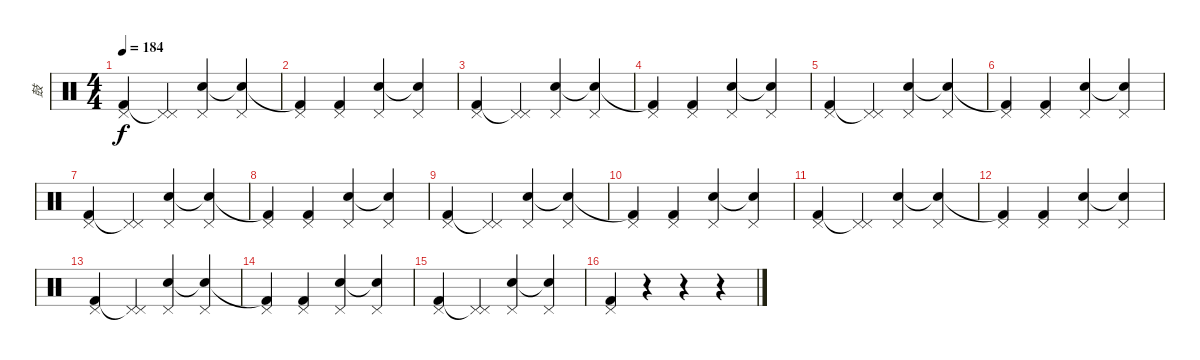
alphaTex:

\track ("鼓" "鼓") {instrument percussion}
\staff {score}
\articulation defaults
\ts (4 4)
\tempo 184
\clef neutral
\ks c
("Pedal Hi-Hat (hit)" "Kick (hit) 2").4{dy f} ("Pedal Hi-Hat (hit)" "Pedal Hi-Hat (hit)"{t}).4 ("Pedal Hi-Hat (hit)" "Electric Snare (hit)").4 ("Pedal Hi-Hat (hit)" "Snare (hit)"{t}).4 |
("Pedal Hi-Hat (hit)" "Kick (hit) 2"{t}).4 ("Pedal Hi-Hat (hit)" "Kick (hit) 2").4 ("Pedal Hi-Hat (hit)" "Electric Snare (hit)").4 ("Pedal Hi-Hat (hit)" "Snare (hit)"{t}).4 |
("Pedal Hi-Hat (hit)" "Kick (hit) 2").4 ("Pedal Hi-Hat (hit)" "Pedal Hi-Hat (hit)"{t}).4 ("Pedal Hi-Hat (hit)" "Electric Snare (hit)").4 ("Pedal Hi-Hat (hit)" "Snare (hit)"{t}).4 |
("Pedal Hi-Hat (hit)" "Kick (hit) 2"{t}).4 ("Pedal Hi-Hat (hit)" "Kick (hit) 2").4 ("Pedal Hi-Hat (hit)" "Electric Snare (hit)").4 ("Pedal Hi-Hat (hit)" "Snare (hit)"{t}).4 |
("Pedal Hi-Hat (hit)" "Kick (hit) 2").4 ("Pedal Hi-Hat (hit)" "Pedal Hi-Hat (hit)"{t}).4 ("Pedal Hi-Hat (hit)" "Electric Snare (hit)").4 ("Pedal Hi-Hat (hit)" "Snare (hit)"{t}).4 |
("Pedal Hi-Hat (hit)" "Kick (hit) 2"{t}).4 ("Pedal Hi-Hat (hit)" "Kick (hit) 2").4 ("Pedal Hi-Hat (hit)" "Electric Snare (hit)").4 ("Pedal Hi-Hat (hit)" "Snare (hit)"{t}).4 |
("Pedal Hi-Hat (hit)" "Kick (hit) 2").4 ("Pedal Hi-Hat (hit)" "Pedal Hi-Hat (hit)"{t}).4 ("Pedal Hi-Hat (hit)" "Electric Snare (hit)").4 ("Pedal Hi-Hat (hit)" "Snare (hit)"{t}).4 |
("Pedal Hi-Hat (hit)" "Kick (hit) 2"{t}).4 ("Pedal Hi-Hat (hit)" "Kick (hit) 2").4 ("Pedal Hi-Hat (hit)" "Electric Snare (hit)").4 ("Pedal Hi-Hat (hit)" "Snare (hit)"{t}).4 |
("Pedal Hi-Hat (hit)" "Kick (hit) 2").4 ("Pedal Hi-Hat (hit)" "Pedal Hi-Hat (hit)"{t}).4 ("Pedal Hi-Hat (hit)" "Electric Snare (hit)").4 ("Pedal Hi-Hat (hit)" "Snare (hit)"{t}).4 |
("Pedal Hi-Hat (hit)" "Kick (hit) 2"{t}).4 ("Pedal Hi-Hat (hit)" "Kick (hit) 2").4 ("Pedal Hi-Hat (hit)" "Electric Snare (hit)").4 ("Pedal Hi-Hat (hit)" "Snare (hit)"{t}).4 |
("Pedal Hi-Hat (hit)" "Kick (hit) 2").4 ("Pedal Hi-Hat (hit)" "Pedal Hi-Hat (hit)"{t}).4 ("Pedal Hi-Hat (hit)" "Electric Snare (hit)").4 ("Pedal Hi-Hat (hit)" "Snare (hit)"{t}).4 |
("Pedal Hi-Hat (hit)" "Kick (hit) 2"{t}).4 ("Pedal Hi-Hat (hit)" "Kick (hit) 2").4 ("Pedal Hi-Hat (hit)" "Electric Snare (hit)").4 ("Pedal Hi-Hat (hit)" "Snare (hit)"{t}).4 |
("Pedal Hi-Hat (hit)" "Kick (hit) 2").4 ("Pedal Hi-Hat (hit)" "Pedal Hi-Hat (hit)"{t}).4 ("Pedal Hi-Hat (hit)" "Electric Snare (hit)").4 ("Pedal Hi-Hat (hit)" "Snare (hit)"{t}).4 |
("Pedal Hi-Hat (hit)" "Kick (hit) 2"{t}).4 ("Pedal Hi-Hat (hit)" "Kick (hit) 2").4 ("Pedal Hi-Hat (hit)" "Electric Snare (hit)").4 ("Pedal Hi-Hat (hit)" "Snare (hit)"{t}).4 |
("Pedal Hi-Hat (hit)" "Kick (hit) 2").4 ("Pedal Hi-Hat (hit)" "Pedal Hi-Hat (hit)"{t}).4 ("Pedal Hi-Hat (hit)" "Electric Snare (hit)").4 ("Pedal Hi-Hat (hit)" "Snare (hit)"{t}).4 |
("Pedal Hi-Hat (hit)" "Kick (hit) 2").4 r.4 r.4 r.4
